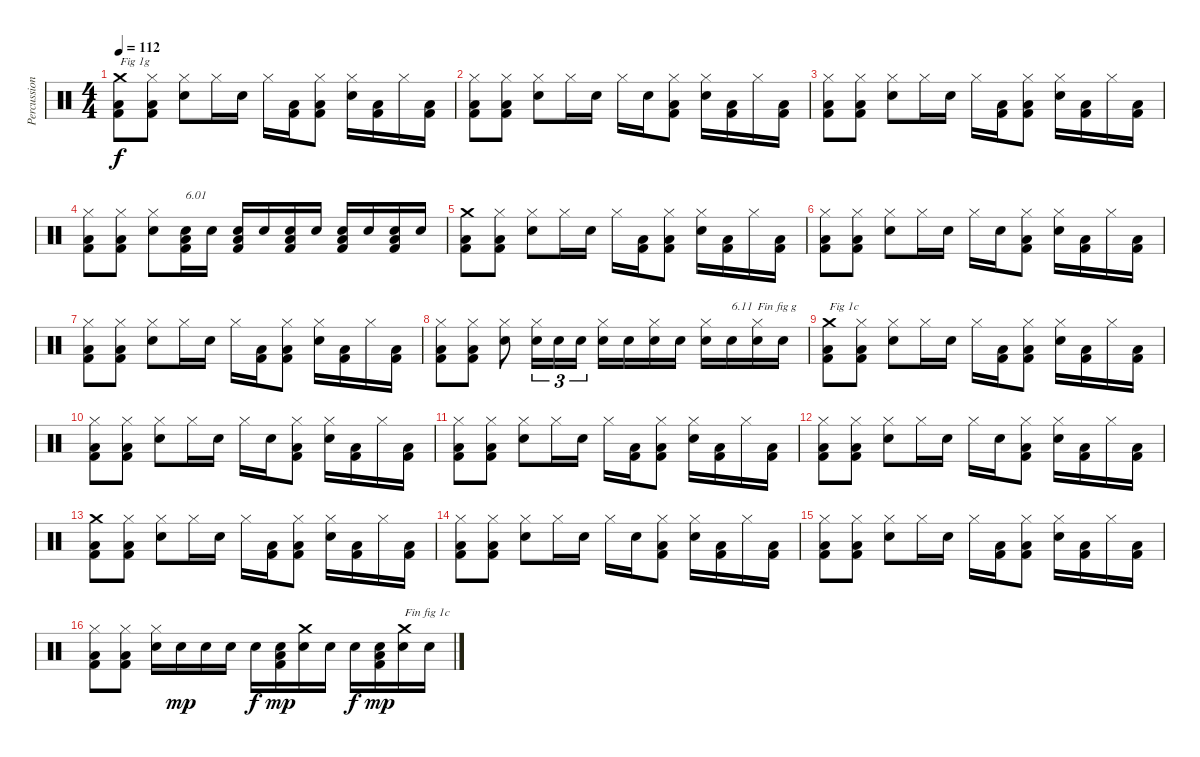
\track ("Percussions" "Percussion") {instrument percussion}
\staff {score}
\articulation defaults
\ts (4 4)
\tempo 112
\clef neutral
\ks c
("Kick (hit) 2" "Low Floor Tom (hit)" "Crash medium (hit)").8{txt "Fig 1g" dy f} ("Kick (hit) 2" "Low Floor Tom (hit)" "Hi-Hat (closed)").8 ("Snare (hit) 2" "Hi-Hat (closed)").8 "Hi-Hat (closed)".16 "Snare (hit) 2".16 "Hi-Hat (closed)".16 ("Kick (hit) 2" "Low Floor Tom (hit)").16 ("Kick (hit) 2" "Low Floor Tom (hit)" "Hi-Hat (closed)").8 ("Snare (hit) 2" "Hi-Hat (closed)").16 ("Kick (hit) 2" "Low Floor Tom (hit)").16 "Hi-Hat (closed)".16 ("Kick (hit) 2" "Low Floor Tom (hit)").16 |
("Kick (hit) 2" "Low Floor Tom (hit)" "Hi-Hat (closed)").8 ("Kick (hit) 2" "Low Floor Tom (hit)" "Hi-Hat (closed)").8 ("Snare (hit) 2" "Hi-Hat (closed)").8 "Hi-Hat (closed)".16 "Snare (hit) 2".16 "Hi-Hat (closed)".16 "Snare (hit) 2".16 ("Kick (hit) 2" "Low Floor Tom (hit)" "Hi-Hat (closed)").8 ("Snare (hit) 2" "Hi-Hat (closed)").16 ("Kick (hit) 2" "Low Floor Tom (hit)").16 "Hi-Hat (closed)".16 ("Kick (hit) 2" "Low Floor Tom (hit)").16 |
("Kick (hit) 2" "Low Floor Tom (hit)" "Hi-Hat (closed)").8 ("Kick (hit) 2" "Low Floor Tom (hit)" "Hi-Hat (closed)").8 ("Snare (hit) 2" "Hi-Hat (closed)").8 "Hi-Hat (closed)".16 "Snare (hit) 2".16 "Hi-Hat (closed)".16 ("Kick (hit) 2" "Low Floor Tom (hit)").16 ("Kick (hit) 2" "Low Floor Tom (hit)" "Hi-Hat (closed)").8 ("Snare (hit) 2" "Hi-Hat (closed)").16 ("Kick (hit) 2" "Low Floor Tom (hit)").16 "Hi-Hat (closed)".16 ("Kick (hit) 2" "Low Floor Tom (hit)").16 |
("Kick (hit) 2" "Low Floor Tom (hit)" "Hi-Hat (closed)").8 ("Kick (hit) 2" "Low Floor Tom (hit)" "Hi-Hat (closed)").8 ("Snare (hit) 2" "Hi-Hat (closed)").8 ("Kick (hit) 2" "Low Floor Tom (hit)" "Snare (hit) 2").16{txt "6.01"} "Snare (hit) 2".16 ("Kick (hit) 2" "Low Floor Tom (hit)" "Snare (hit) 2").16 "Snare (hit) 2".16 ("Kick (hit) 2" "Low Floor Tom (hit)" "Snare (hit) 2").16 "Snare (hit) 2".16 ("Kick (hit) 2" "Low Floor Tom (hit)" "Snare (hit) 2").16 "Snare (hit) 2".16 ("Kick (hit) 2" "Low Floor Tom (hit)" "Snare (hit) 2").16 "Snare (hit) 2".16 |
("Kick (hit) 2" "Low Floor Tom (hit)" "Crash medium (hit)").8 ("Kick (hit) 2" "Low Floor Tom (hit)" "Hi-Hat (closed)").8 ("Snare (hit) 2" "Hi-Hat (closed)").8 "Hi-Hat (closed)".16 "Snare (hit) 2".16 "Hi-Hat (closed)".16 ("Kick (hit) 2" "Low Floor Tom (hit)").16 ("Kick (hit) 2" "Low Floor Tom (hit)" "Hi-Hat (closed)").8 ("Snare (hit) 2" "Hi-Hat (closed)").16 ("Kick (hit) 2" "Low Floor Tom (hit)").16 "Hi-Hat (closed)".16 ("Kick (hit) 2" "Low Floor Tom (hit)").16 |
("Kick (hit) 2" "Low Floor Tom (hit)" "Hi-Hat (closed)").8 ("Kick (hit) 2" "Low Floor Tom (hit)" "Hi-Hat (closed)").8 ("Snare (hit) 2" "Hi-Hat (closed)").8 "Hi-Hat (closed)".16 "Snare (hit) 2".16 "Hi-Hat (closed)".16 "Snare (hit) 2".16 ("Kick (hit) 2" "Low Floor Tom (hit)" "Hi-Hat (closed)").8 ("Snare (hit) 2" "Hi-Hat (closed)").16 ("Kick (hit) 2" "Low Floor Tom (hit)").16 "Hi-Hat (closed)".16 ("Kick (hit) 2" "Low Floor Tom (hit)").16 |
("Kick (hit) 2" "Low Floor Tom (hit)" "Hi-Hat (closed)").8 ("Kick (hit) 2" "Low Floor Tom (hit)" "Hi-Hat (closed)").8 ("Snare (hit) 2" "Hi-Hat (closed)").8 "Hi-Hat (closed)".16 "Snare (hit) 2".16 "Hi-Hat (closed)".16 ("Kick (hit) 2" "Low Floor Tom (hit)").16 ("Kick (hit) 2" "Low Floor Tom (hit)" "Hi-Hat (closed)").8 ("Snare (hit) 2" "Hi-Hat (closed)").16 ("Kick (hit) 2" "Low Floor Tom (hit)").16 "Hi-Hat (closed)".16 ("Kick (hit) 2" "Low Floor Tom (hit)").16 |
("Kick (hit) 2" "Low Floor Tom (hit)" "Hi-Hat (closed)").8 ("Kick (hit) 2" "Low Floor Tom (hit)" "Hi-Hat (closed)").8 ("Snare (hit) 2" "Hi-Hat (closed)").8 ("Snare (hit) 2" "Hi-Hat (closed)").16{tu (3 2)} "Snare (hit) 2".16{tu (3 2)} "Snare (hit) 2".16{tu (3 2)} ("Snare (hit) 2" "Hi-Hat (closed)").16 "Snare (hit) 2".16 ("Snare (hit) 2" "Hi-Hat (closed)").16 "Snare (hit) 2".16 ("Snare (hit) 2" "Hi-Hat (closed)").16 "Snare (hit) 2".16{txt "6.11"} ("Snare (hit) 2" "Hi-Hat (closed)").16{txt "Fin fig g"} "Snare (hit) 2".16 |
("Kick (hit) 2" "Low Floor Tom (hit)" "Crash medium (hit)").8{txt "Fig 1c"} ("Kick (hit) 2" "Low Floor Tom (hit)" "Hi-Hat (closed)").8 ("Snare (hit) 2" "Hi-Hat (closed)").8 "Hi-Hat (closed)".16 "Snare (hit) 2".16 "Hi-Hat (closed)".16 ("Kick (hit) 2" "Low Floor Tom (hit)").16 ("Kick (hit) 2" "Low Floor Tom (hit)" "Hi-Hat (closed)").8 ("Snare (hit) 2" "Hi-Hat (closed)").16 ("Kick (hit) 2" "Low Floor Tom (hit)").16 "Hi-Hat (closed)".16 ("Kick (hit) 2" "Low Floor Tom (hit)").16 |
("Kick (hit) 2" "Low Floor Tom (hit)" "Hi-Hat (closed)").8 ("Kick (hit) 2" "Low Floor Tom (hit)" "Hi-Hat (closed)").8 ("Snare (hit) 2" "Hi-Hat (closed)").8 "Hi-Hat (closed)".16 "Snare (hit) 2".16 "Hi-Hat (closed)".16 "Snare (hit) 2".16 ("Kick (hit) 2" "Low Floor Tom (hit)" "Hi-Hat (closed)").8 ("Snare (hit) 2" "Hi-Hat (closed)").16 ("Kick (hit) 2" "Low Floor Tom (hit)").16 "Hi-Hat (closed)".16 ("Kick (hit) 2" "Low Floor Tom (hit)").16 |
("Kick (hit) 2" "Low Floor Tom (hit)" "Hi-Hat (closed)").8 ("Kick (hit) 2" "Low Floor Tom (hit)" "Hi-Hat (closed)").8 ("Snare (hit) 2" "Hi-Hat (closed)").8 "Hi-Hat (closed)".16 "Snare (hit) 2".16 "Hi-Hat (closed)".16 ("Kick (hit) 2" "Low Floor Tom (hit)").16 ("Kick (hit) 2" "Low Floor Tom (hit)" "Hi-Hat (closed)").8 ("Snare (hit) 2" "Hi-Hat (closed)").16 ("Kick (hit) 2" "Low Floor Tom (hit)").16 "Hi-Hat (closed)".16 ("Kick (hit) 2" "Low Floor Tom (hit)").16 |
("Kick (hit) 2" "Low Floor Tom (hit)" "Hi-Hat (closed)").8 ("Kick (hit) 2" "Low Floor Tom (hit)" "Hi-Hat (closed)").8 ("Snare (hit) 2" "Hi-Hat (closed)").8 "Hi-Hat (closed)".16 "Snare (hit) 2".16 "Hi-Hat (closed)".16 "Snare (hit) 2".16 ("Kick (hit) 2" "Low Floor Tom (hit)" "Hi-Hat (closed)").8 ("Snare (hit) 2" "Hi-Hat (closed)").16 ("Kick (hit) 2" "Low Floor Tom (hit)").16 "Hi-Hat (closed)".16 ("Kick (hit) 2" "Low Floor Tom (hit)").16 |
("Kick (hit) 2" "Low Floor Tom (hit)" "Crash medium (hit)").8 ("Kick (hit) 2" "Low Floor Tom (hit)" "Hi-Hat (closed)").8 ("Snare (hit) 2" "Hi-Hat (closed)").8 "Hi-Hat (closed)".16 "Snare (hit) 2".16 "Hi-Hat (closed)".16 ("Kick (hit) 2" "Low Floor Tom (hit)").16 ("Kick (hit) 2" "Low Floor Tom (hit)" "Hi-Hat (closed)").8 ("Snare (hit) 2" "Hi-Hat (closed)").16 ("Kick (hit) 2" "Low Floor Tom (hit)").16 "Hi-Hat (closed)".16 ("Kick (hit) 2" "Low Floor Tom (hit)").16 |
("Kick (hit) 2" "Low Floor Tom (hit)" "Hi-Hat (closed)").8 ("Kick (hit) 2" "Low Floor Tom (hit)" "Hi-Hat (closed)").8 ("Snare (hit) 2" "Hi-Hat (closed)").8 "Hi-Hat (closed)".16 "Snare (hit) 2".16 "Hi-Hat (closed)".16 "Snare (hit) 2".16 ("Kick (hit) 2" "Low Floor Tom (hit)" "Hi-Hat (closed)").8 ("Snare (hit) 2" "Hi-Hat (closed)").16 ("Kick (hit) 2" "Low Floor Tom (hit)").16 "Hi-Hat (closed)".16 ("Kick (hit) 2" "Low Floor Tom (hit)").16 |
("Kick (hit) 2" "Low Floor Tom (hit)" "Hi-Hat (closed)").8 ("Kick (hit) 2" "Low Floor Tom (hit)" "Hi-Hat (closed)").8 ("Snare (hit) 2" "Hi-Hat (closed)").8 "Hi-Hat (closed)".16 "Snare (hit) 2".16 "Hi-Hat (closed)".16 ("Kick (hit) 2" "Low Floor Tom (hit)").16 ("Kick (hit) 2" "Low Floor Tom (hit)" "Hi-Hat (closed)").8 ("Snare (hit) 2" "Hi-Hat (closed)").16 ("Kick (hit) 2" "Low Floor Tom (hit)").16 "Hi-Hat (closed)".16 ("Kick (hit) 2" "Low Floor Tom (hit)").16 |
("Kick (hit) 2" "Low Floor Tom (hit)" "Hi-Hat (closed)").8 ("Kick (hit) 2" "Low Floor Tom (hit)" "Hi-Hat (closed)").8 ("Snare (hit) 2" "Hi-Hat (closed)").16 "Snare (hit) 2".16{dy mp} "Snare (hit) 2".16 "Snare (hit) 2".16 "Snare (hit) 2".16{dy f} ("Kick (hit) 2" "Low Floor Tom (hit)" "Snare (hit) 2").16{dy mp} ("Snare (hit) 2" "Crash medium (hit)").16 "Snare (hit) 2".16 "Snare (hit) 2".16{dy f} ("Kick (hit) 2" "Low Floor Tom (hit)" "Snare (hit) 2").16{dy mp} ("Snare (hit) 2" "Crash medium (hit)").16{txt "Fin fig 1c"} "Snare (hit) 2".16
